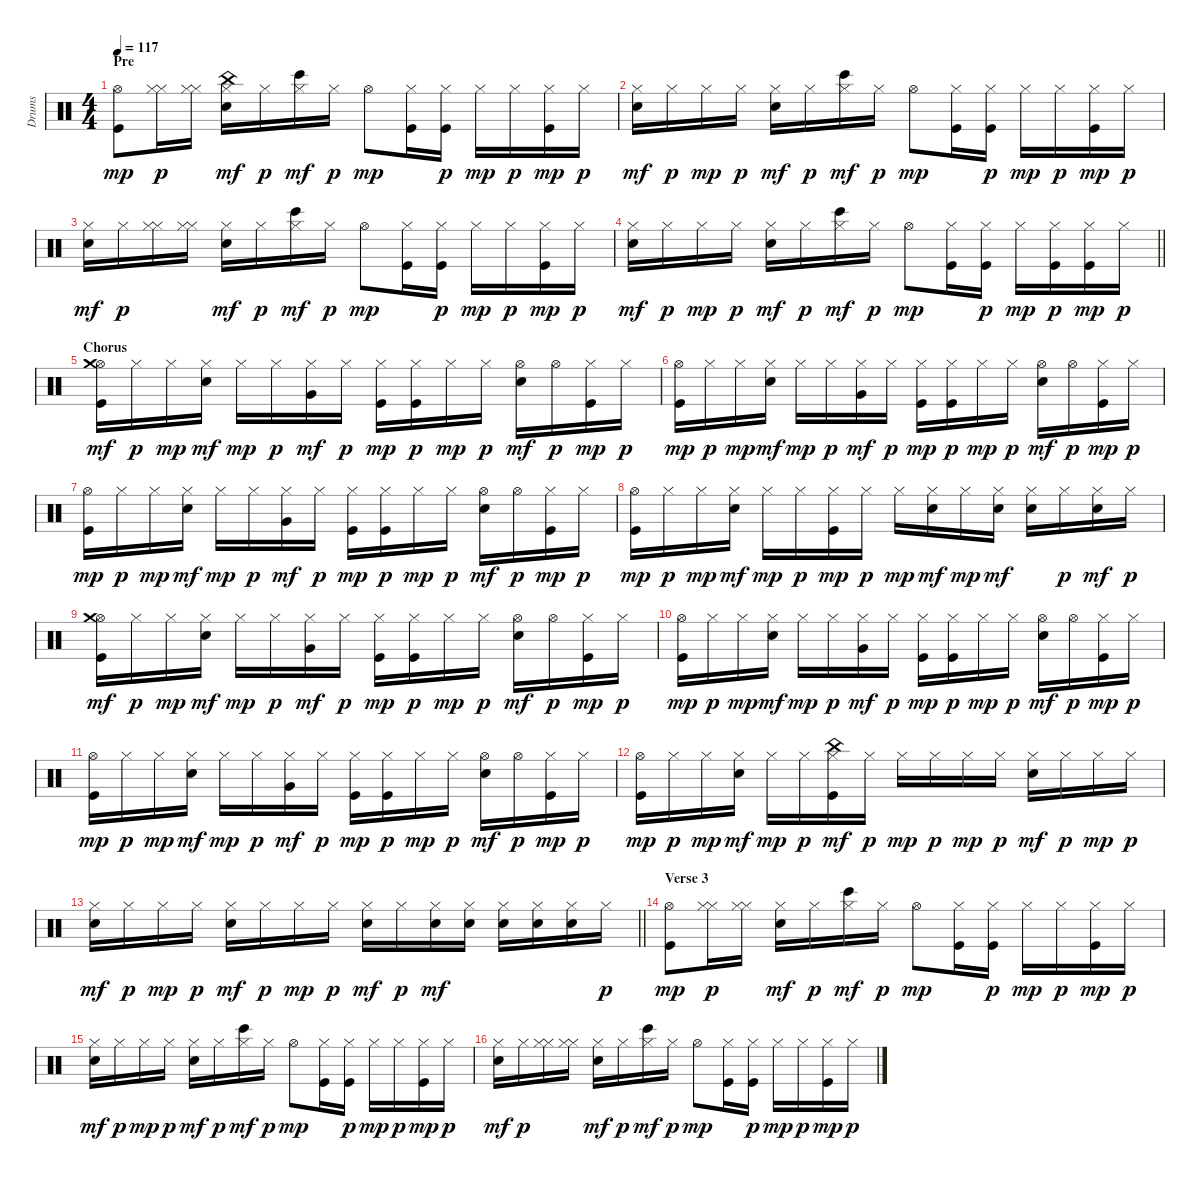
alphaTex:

\track ("Drums" "Drums") {instrument percussion}
\staff {score}
\articulation defaults
\ts (4 4)
\section ("" "Pre")
\tempo 117
\clef neutral
\ks c
("Hi-Hat (open)" "Kick (hit)").8{dy mp} ("Hi-Hat (closed)" "Hi-Hat (closed)").16{dy p} ("Hi-Hat (closed)" "Hi-Hat (closed)").16 ("Hi-Hat (closed)" "China (hit)" "Electric Snare (hit)").16{dy mf} "Hi-Hat (closed)".16{dy p} ("Hi-Hat (closed)" "Bongo High (hit)").16{dy mf} "Hi-Hat (closed)".16{dy p} "Hi-Hat (open)".8{dy mp} ("Hi-Hat (closed)" "Kick (hit)").16 ("Hi-Hat (closed)" "Kick (hit)").16{dy p} "Hi-Hat (closed)".16{dy mp} "Hi-Hat (closed)".16{dy p} ("Hi-Hat (closed)" "Kick (hit)").16{dy mp} "Hi-Hat (closed)".16{dy p} |
("Hi-Hat (closed)" "Electric Snare (hit)").16{dy mf} "Hi-Hat (closed)".16{dy p} "Hi-Hat (closed)".16{dy mp} "Hi-Hat (closed)".16{dy p} ("Hi-Hat (closed)" "Electric Snare (hit)").16{dy mf} "Hi-Hat (closed)".16{dy p} ("Hi-Hat (closed)" "Bongo High (hit)").16{dy mf} "Hi-Hat (closed)".16{dy p} "Hi-Hat (open)".8{dy mp} ("Hi-Hat (closed)" "Kick (hit)").16 ("Hi-Hat (closed)" "Kick (hit)").16{dy p} "Hi-Hat (closed)".16{dy mp} "Hi-Hat (closed)".16{dy p} ("Hi-Hat (closed)" "Kick (hit)").16{dy mp} "Hi-Hat (closed)".16{dy p} |
("Hi-Hat (closed)" "Electric Snare (hit)").16{dy mf} "Hi-Hat (closed)".16{dy p} ("Hi-Hat (closed)" "Hi-Hat (closed)").16 ("Hi-Hat (closed)" "Hi-Hat (closed)").16 ("Hi-Hat (closed)" "Electric Snare (hit)").16{dy mf} "Hi-Hat (closed)".16{dy p} ("Hi-Hat (closed)" "Bongo High (hit)").16{dy mf} "Hi-Hat (closed)".16{dy p} "Hi-Hat (open)".8{dy mp} ("Hi-Hat (closed)" "Kick (hit)").16 ("Hi-Hat (closed)" "Kick (hit)").16{dy p} "Hi-Hat (closed)".16{dy mp} "Hi-Hat (closed)".16{dy p} ("Hi-Hat (closed)" "Kick (hit)").16{dy mp} "Hi-Hat (closed)".16{dy p} |
\barLineRight lightlight
("Hi-Hat (closed)" "Electric Snare (hit)").16{dy mf} "Hi-Hat (closed)".16{dy p} "Hi-Hat (closed)".16{dy mp} "Hi-Hat (closed)".16{dy p} ("Hi-Hat (closed)" "Electric Snare (hit)").16{dy mf} "Hi-Hat (closed)".16{dy p} ("Hi-Hat (closed)" "Bongo High (hit)").16{dy mf} "Hi-Hat (closed)".16{dy p} "Hi-Hat (open)".8{dy mp} ("Hi-Hat (closed)" "Kick (hit)").16 ("Hi-Hat (closed)" "Kick (hit)").16{dy p} "Hi-Hat (closed)".16{dy mp} ("Hi-Hat (closed)" "Kick (hit)").16{dy p} ("Hi-Hat (closed)" "Kick (hit)").16{dy mp} "Hi-Hat (closed)".16{dy p} |
\section ("" "Chorus")
("Hi-Hat (open)" "Crash medium (hit)" "Kick (hit)").16{dy mf} "Hi-Hat (closed)".16{dy p} "Hi-Hat (closed)".16{dy mp} ("Hi-Hat (closed)" "Electric Snare (hit)").16{dy mf} "Hi-Hat (closed)".16{dy mp} "Hi-Hat (closed)".16{dy p} ("Hi-Hat (closed)" "Very Low Tom (hit)").16{dy mf} "Hi-Hat (closed)".16{dy p} ("Hi-Hat (closed)" "Kick (hit)").16{dy mp} ("Hi-Hat (closed)" "Kick (hit)").16{dy p} "Hi-Hat (closed)".16{dy mp} "Hi-Hat (closed)".16{dy p} ("Hi-Hat (open)" "Electric Snare (hit)").16{dy mf} "Hi-Hat (open)".16{dy p} ("Hi-Hat (closed)" "Kick (hit)").16{dy mp} "Hi-Hat (closed)".16{dy p} |
("Hi-Hat (open)" "Kick (hit)").16{dy mp} "Hi-Hat (closed)".16{dy p} "Hi-Hat (closed)".16{dy mp} ("Hi-Hat (closed)" "Electric Snare (hit)").16{dy mf} "Hi-Hat (closed)".16{dy mp} "Hi-Hat (closed)".16{dy p} ("Hi-Hat (closed)" "Very Low Tom (hit)").16{dy mf} "Hi-Hat (closed)".16{dy p} ("Hi-Hat (closed)" "Kick (hit)").16{dy mp} ("Hi-Hat (closed)" "Kick (hit)").16{dy p} "Hi-Hat (closed)".16{dy mp} "Hi-Hat (closed)".16{dy p} ("Hi-Hat (open)" "Electric Snare (hit)").16{dy mf} "Hi-Hat (open)".16{dy p} ("Hi-Hat (closed)" "Kick (hit)").16{dy mp} "Hi-Hat (closed)".16{dy p} |
("Hi-Hat (open)" "Kick (hit)").16{dy mp} "Hi-Hat (closed)".16{dy p} "Hi-Hat (closed)".16{dy mp} ("Hi-Hat (closed)" "Electric Snare (hit)").16{dy mf} "Hi-Hat (closed)".16{dy mp} "Hi-Hat (closed)".16{dy p} ("Hi-Hat (closed)" "Very Low Tom (hit)").16{dy mf} "Hi-Hat (closed)".16{dy p} ("Hi-Hat (closed)" "Kick (hit)").16{dy mp} ("Hi-Hat (closed)" "Kick (hit)").16{dy p} "Hi-Hat (closed)".16{dy mp} "Hi-Hat (closed)".16{dy p} ("Hi-Hat (open)" "Electric Snare (hit)").16{dy mf} "Hi-Hat (open)".16{dy p} ("Hi-Hat (closed)" "Kick (hit)").16{dy mp} "Hi-Hat (closed)".16{dy p} |
("Hi-Hat (open)" "Kick (hit)").16{dy mp} "Hi-Hat (closed)".16{dy p} "Hi-Hat (closed)".16{dy mp} ("Hi-Hat (closed)" "Electric Snare (hit)").16{dy mf} "Hi-Hat (closed)".16{dy mp} "Hi-Hat (closed)".16{dy p} ("Hi-Hat (closed)" "Kick (hit)").16{dy mp} "Hi-Hat (closed)".16{dy p} "Hi-Hat (closed)".16{dy mp} ("Hi-Hat (closed)" "Electric Snare (hit)").16{dy mf} "Hi-Hat (closed)".16{dy mp} ("Hi-Hat (closed)" "Electric Snare (hit)").16{dy mf} ("Hi-Hat (closed)" "Electric Snare (hit)").16 "Hi-Hat (closed)".16{dy p} ("Hi-Hat (closed)" "Electric Snare (hit)").16{dy mf} "Hi-Hat (closed)".16{dy p} |
("Hi-Hat (open)" "Crash medium (hit)" "Kick (hit)").16{dy mf} "Hi-Hat (closed)".16{dy p} "Hi-Hat (closed)".16{dy mp} ("Hi-Hat (closed)" "Electric Snare (hit)").16{dy mf} "Hi-Hat (closed)".16{dy mp} "Hi-Hat (closed)".16{dy p} ("Hi-Hat (closed)" "Very Low Tom (hit)").16{dy mf} "Hi-Hat (closed)".16{dy p} ("Hi-Hat (closed)" "Kick (hit)").16{dy mp} ("Hi-Hat (closed)" "Kick (hit)").16{dy p} "Hi-Hat (closed)".16{dy mp} "Hi-Hat (closed)".16{dy p} ("Hi-Hat (open)" "Electric Snare (hit)").16{dy mf} "Hi-Hat (open)".16{dy p} ("Hi-Hat (closed)" "Kick (hit)").16{dy mp} "Hi-Hat (closed)".16{dy p} |
("Hi-Hat (open)" "Kick (hit)").16{dy mp} "Hi-Hat (closed)".16{dy p} "Hi-Hat (closed)".16{dy mp} ("Hi-Hat (closed)" "Electric Snare (hit)").16{dy mf} "Hi-Hat (closed)".16{dy mp} "Hi-Hat (closed)".16{dy p} ("Hi-Hat (closed)" "Very Low Tom (hit)").16{dy mf} "Hi-Hat (closed)".16{dy p} ("Hi-Hat (closed)" "Kick (hit)").16{dy mp} ("Hi-Hat (closed)" "Kick (hit)").16{dy p} "Hi-Hat (closed)".16{dy mp} "Hi-Hat (closed)".16{dy p} ("Hi-Hat (open)" "Electric Snare (hit)").16{dy mf} "Hi-Hat (open)".16{dy p} ("Hi-Hat (closed)" "Kick (hit)").16{dy mp} "Hi-Hat (closed)".16{dy p} |
("Hi-Hat (open)" "Kick (hit)").16{dy mp} "Hi-Hat (closed)".16{dy p} "Hi-Hat (closed)".16{dy mp} ("Hi-Hat (closed)" "Electric Snare (hit)").16{dy mf} "Hi-Hat (closed)".16{dy mp} "Hi-Hat (closed)".16{dy p} ("Hi-Hat (closed)" "Very Low Tom (hit)").16{dy mf} "Hi-Hat (closed)".16{dy p} ("Hi-Hat (closed)" "Kick (hit)").16{dy mp} ("Hi-Hat (closed)" "Kick (hit)").16{dy p} "Hi-Hat (closed)".16{dy mp} "Hi-Hat (closed)".16{dy p} ("Hi-Hat (open)" "Electric Snare (hit)").16{dy mf} "Hi-Hat (open)".16{dy p} ("Hi-Hat (closed)" "Kick (hit)").16{dy mp} "Hi-Hat (closed)".16{dy p} |
("Hi-Hat (open)" "Kick (hit)").16{dy mp} "Hi-Hat (closed)".16{dy p} "Hi-Hat (closed)".16{dy mp} ("Hi-Hat (closed)" "Electric Snare (hit)").16{dy mf} "Hi-Hat (closed)".16{dy mp} "Hi-Hat (closed)".16{dy p} ("Hi-Hat (closed)" "China (hit)" "Kick (hit)").16{dy mf} "Hi-Hat (closed)".16{dy p} "Hi-Hat (closed)".16{dy mp} "Hi-Hat (closed)".16{dy p} "Hi-Hat (closed)".16{dy mp} "Hi-Hat (closed)".16{dy p} ("Hi-Hat (closed)" "Electric Snare (hit)").16{dy mf} "Hi-Hat (closed)".16{dy p} "Hi-Hat (closed)".16{dy mp} "Hi-Hat (closed)".16{dy p} |
\barLineRight lightlight
("Hi-Hat (closed)" "Electric Snare (hit)").16{dy mf} "Hi-Hat (closed)".16{dy p} "Hi-Hat (closed)".16{dy mp} "Hi-Hat (closed)".16{dy p} ("Hi-Hat (closed)" "Electric Snare (hit)").16{dy mf} "Hi-Hat (closed)".16{dy p} "Hi-Hat (closed)".16{dy mp} "Hi-Hat (closed)".16{dy p} ("Hi-Hat (closed)" "Electric Snare (hit)").16{dy mf} "Hi-Hat (closed)".16{dy p} ("Hi-Hat (closed)" "Electric Snare (hit)").16{dy mf} ("Hi-Hat (closed)" "Electric Snare (hit)").16 ("Hi-Hat (closed)" "Electric Snare (hit)").16 ("Hi-Hat (closed)" "Electric Snare (hit)").16 ("Hi-Hat (closed)" "Electric Snare (hit)").16 "Hi-Hat (closed)".16{dy p} |
\section ("" "Verse 3")
("Hi-Hat (open)" "Kick (hit)").8{dy mp} ("Hi-Hat (closed)" "Hi-Hat (closed)").16{dy p} ("Hi-Hat (closed)" "Hi-Hat (closed)").16 ("Hi-Hat (closed)" "Electric Snare (hit)").16{dy mf} "Hi-Hat (closed)".16{dy p} ("Hi-Hat (closed)" "Bongo High (hit)").16{dy mf} "Hi-Hat (closed)".16{dy p} "Hi-Hat (open)".8{dy mp} ("Hi-Hat (closed)" "Kick (hit)").16 ("Hi-Hat (closed)" "Kick (hit)").16{dy p} "Hi-Hat (closed)".16{dy mp} "Hi-Hat (closed)".16{dy p} ("Hi-Hat (closed)" "Kick (hit)").16{dy mp} "Hi-Hat (closed)".16{dy p} |
("Hi-Hat (closed)" "Electric Snare (hit)").16{dy mf} "Hi-Hat (closed)".16{dy p} "Hi-Hat (closed)".16{dy mp} "Hi-Hat (closed)".16{dy p} ("Hi-Hat (closed)" "Electric Snare (hit)").16{dy mf} "Hi-Hat (closed)".16{dy p} ("Hi-Hat (closed)" "Bongo High (hit)").16{dy mf} "Hi-Hat (closed)".16{dy p} "Hi-Hat (open)".8{dy mp} ("Hi-Hat (closed)" "Kick (hit)").16 ("Hi-Hat (closed)" "Kick (hit)").16{dy p} "Hi-Hat (closed)".16{dy mp} "Hi-Hat (closed)".16{dy p} ("Hi-Hat (closed)" "Kick (hit)").16{dy mp} "Hi-Hat (closed)".16{dy p} |
("Hi-Hat (closed)" "Electric Snare (hit)").16{dy mf} "Hi-Hat (closed)".16{dy p} ("Hi-Hat (closed)" "Hi-Hat (closed)").16 ("Hi-Hat (closed)" "Hi-Hat (closed)").16 ("Hi-Hat (closed)" "Electric Snare (hit)").16{dy mf} "Hi-Hat (closed)".16{dy p} ("Hi-Hat (closed)" "Bongo High (hit)").16{dy mf} "Hi-Hat (closed)".16{dy p} "Hi-Hat (open)".8{dy mp} ("Hi-Hat (closed)" "Kick (hit)").16 ("Hi-Hat (closed)" "Kick (hit)").16{dy p} "Hi-Hat (closed)".16{dy mp} "Hi-Hat (closed)".16{dy p} ("Hi-Hat (closed)" "Kick (hit)").16{dy mp} "Hi-Hat (closed)".16{dy p}
